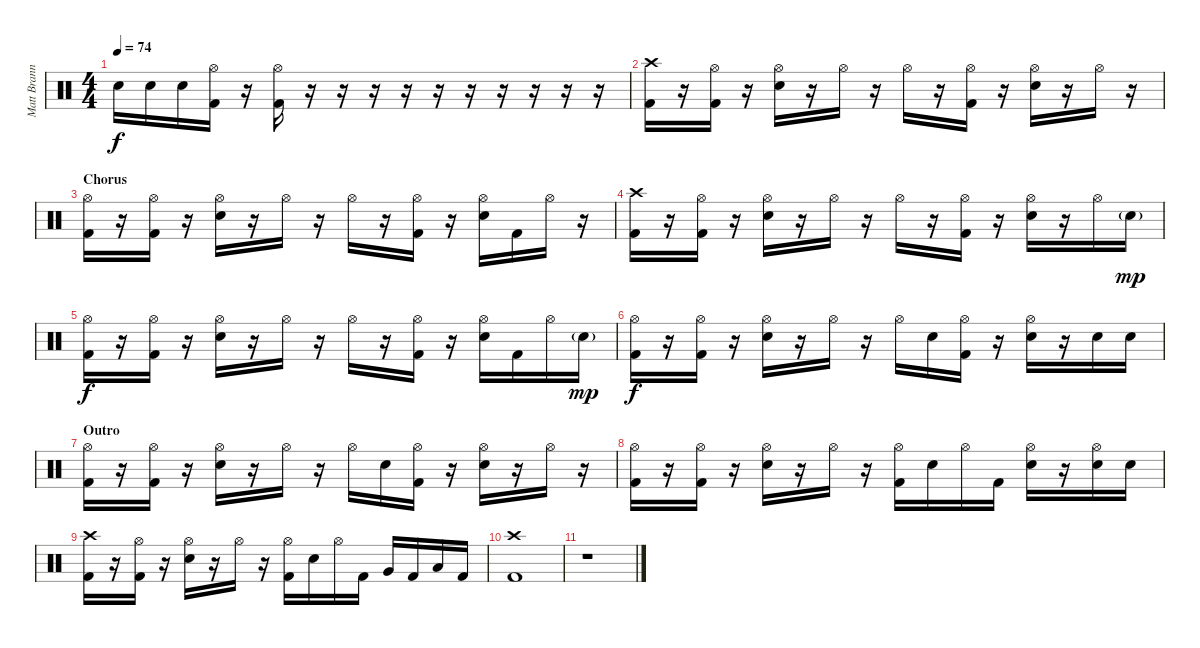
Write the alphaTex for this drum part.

\track ("Matt Brann" "Matt Brann") {instrument percussion}
\staff {score}
\articulation defaults
\ts (4 4)
\tempo 74
\clef neutral
\ks c "Snare (hit) 2".16{dy f} "Snare (hit) 2".16 "Snare (hit) 2".16
("Hi-Hat (open)" "Kick (hit) 2").16 r.16 ("Hi-Hat (open)" "Kick (hit) 2").16 r.16 r.16 r.16 r.16 r.16 r.16 r.16 r.16 r.16 r.16 |
("Crash high (hit)" "Kick (hit) 2").16 r.16 ("Hi-Hat (open)" "Kick (hit) 2").16 r.16 ("Hi-Hat (open)" "Snare (hit) 2").16 r.16 "Hi-Hat (open)".16 r.16 "Hi-Hat (open)".16 r.16 ("Hi-Hat (open)" "Kick (hit) 2").16 r.16 ("Hi-Hat (open)" "Snare (hit) 2").16 r.16 "Hi-Hat (open)".16 r.16 |
\section ("" "Chorus")
("Hi-Hat (open)" "Kick (hit) 2").16 r.16 ("Hi-Hat (open)" "Kick (hit) 2").16 r.16 ("Hi-Hat (open)" "Snare (hit) 2").16 r.16 "Hi-Hat (open)".16 r.16 "Hi-Hat (open)".16 r.16 ("Hi-Hat (open)" "Kick (hit) 2").16 r.16 ("Hi-Hat (open)" "Snare (hit) 2").16 "Kick (hit) 2".16 "Hi-Hat (open)".16 r.16 |
("Crash high (hit)" "Kick (hit) 2").16 r.16 ("Hi-Hat (open)" "Kick (hit) 2").16 r.16 ("Hi-Hat (open)" "Snare (hit) 2").16 r.16 "Hi-Hat (open)".16 r.16 "Hi-Hat (open)".16 r.16 ("Hi-Hat (open)" "Kick (hit) 2").16 r.16 ("Hi-Hat (open)" "Snare (hit) 2").16 r.16 "Hi-Hat (open)".16 "Snare (hit) 2"{g}.16{dy mp} |
("Hi-Hat (open)" "Kick (hit) 2").16{dy f} r.16 ("Hi-Hat (open)" "Kick (hit) 2").16 r.16 ("Hi-Hat (open)" "Snare (hit) 2").16 r.16 "Hi-Hat (open)".16 r.16 "Hi-Hat (open)".16 r.16 ("Hi-Hat (open)" "Kick (hit) 2").16 r.16 ("Hi-Hat (open)" "Snare (hit) 2").16 "Kick (hit) 2".16 "Hi-Hat (open)".16 "Snare (hit) 2"{g}.16{dy mp} |
("Hi-Hat (open)" "Kick (hit) 2").16{dy f} r.16 ("Hi-Hat (open)" "Kick (hit) 2").16 r.16 ("Hi-Hat (open)" "Snare (hit) 2").16 r.16 "Hi-Hat (open)".16 r.16 "Hi-Hat (open)".16 "Snare (hit) 2".16 ("Hi-Hat (open)" "Kick (hit) 2").16 r.16 ("Hi-Hat (open)" "Snare (hit) 2").16 r.16 "Snare (hit) 2".16 "Snare (hit) 2".16 |
\section ("" "Outro")
("Hi-Hat (open)" "Kick (hit) 2").16 r.16 ("Hi-Hat (open)" "Kick (hit) 2").16 r.16 ("Hi-Hat (open)" "Snare (hit) 2").16 r.16 "Hi-Hat (open)".16 r.16 "Hi-Hat (open)".16 "Snare (hit) 2".16 ("Hi-Hat (open)" "Kick (hit) 2").16 r.16 ("Hi-Hat (open)" "Snare (hit) 2").16 r.16 "Hi-Hat (open)".16 r.16 |
("Hi-Hat (open)" "Kick (hit) 2").16 r.16 ("Hi-Hat (open)" "Kick (hit) 2").16 r.16 ("Hi-Hat (open)" "Snare (hit) 2").16 r.16 "Hi-Hat (open)".16 r.16 ("Hi-Hat (open)" "Kick (hit) 2").16 "Snare (hit) 2".16 "Hi-Hat (open)".16 "Kick (hit) 2".16 ("Hi-Hat (open)" "Snare (hit) 2").16 r.16 ("Hi-Hat (open)" "Snare (hit) 2").16 "Snare (hit) 2".16 |
("Crash high (hit)" "Kick (hit) 2").16 r.16 ("Hi-Hat (open)" "Kick (hit) 2").16 r.16 ("Hi-Hat (open)" "Snare (hit) 2").16 r.16 "Hi-Hat (open)".16 r.16 ("Hi-Hat (open)" "Kick (hit) 2").16 "Snare (hit) 2".16 "Hi-Hat (open)".16 "Kick (hit) 2".16 "Very Low Tom (hit)".16 "Kick (hit) 2".16 "Low Floor Tom (hit)".16 "Kick (hit) 2".16 |
("Crash high (hit)" "Kick (hit) 2").1 |
r.1
